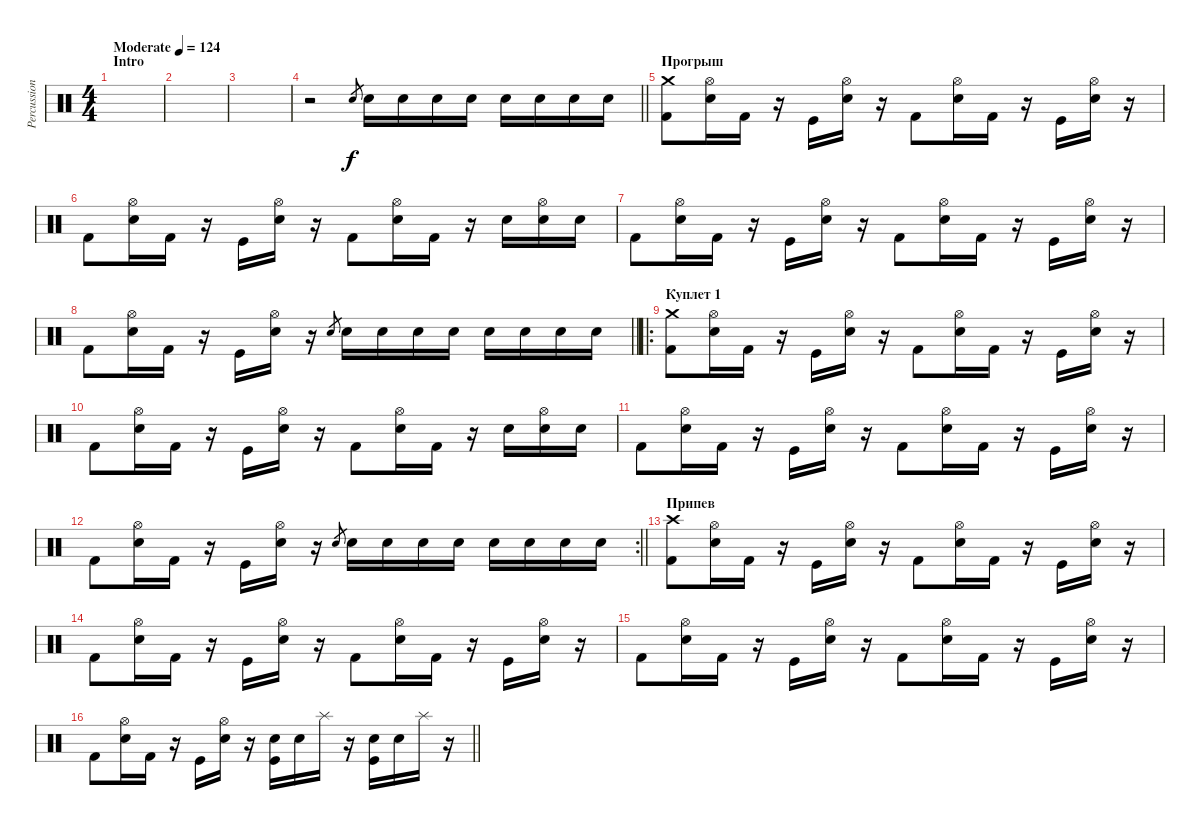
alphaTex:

\track ("Percussion" "Percussion") {instrument percussion}
\staff {score}
\articulation defaults
\ts (4 4)
\section ("" "Intro")
\tempo (124 "Moderate")
\clef neutral
\ks c
|
|
|
\barLineRight lightlight
r.2 "Electric Snare (hit)".8{gr} "Electric Snare (hit)".16 "Electric Snare (hit)".16 "Electric Snare (hit)".16 "Electric Snare (hit)".16 "Snare (hit) 2".16 "Snare (hit) 2".16 "Snare (hit) 2".16 "Snare (hit) 2".16 |
\section ("" "Прогрыш")
("Crash medium (hit)" "Kick (hit) 2").8 ("Hi-Hat (open)" "Snare (hit) 2").16 "Kick (hit) 2".16 r.16 "Kick (hit)".16 ("Hi-Hat (open)" "Snare (hit) 2").16 r.16 "Kick (hit) 2".8 ("Hi-Hat (open)" "Snare (hit) 2").16 "Kick (hit) 2".16 r.16 "Kick (hit)".16 ("Hi-Hat (open)" "Snare (hit) 2").16 r.16 |
"Kick (hit) 2".8 ("Hi-Hat (open)" "Snare (hit) 2").16 "Kick (hit) 2".16 r.16 "Kick (hit)".16 ("Hi-Hat (open)" "Snare (hit) 2").16 r.16 "Kick (hit) 2".8 ("Hi-Hat (open)" "Snare (hit) 2").16 "Kick (hit) 2".16 r.16 "Snare (hit) 2".16 ("Hi-Hat (open)" "Electric Snare (hit)").16 "Snare (hit) 2".16 |
"Kick (hit) 2".8 ("Hi-Hat (open)" "Snare (hit) 2").16 "Kick (hit) 2".16 r.16 "Kick (hit)".16 ("Hi-Hat (open)" "Snare (hit) 2").16 r.16 "Kick (hit) 2".8 ("Hi-Hat (open)" "Snare (hit) 2").16 "Kick (hit) 2".16 r.16 "Kick (hit)".16 ("Hi-Hat (open)" "Snare (hit) 2").16 r.16 |
\barLineRight lightlight "Kick (hit) 2".8
("Hi-Hat (open)" "Snare (hit) 2").16 "Kick (hit) 2".16 r.16 "Kick (hit)".16 ("Hi-Hat (open)" "Snare (hit) 2").16 r.16 "Electric Snare (hit)".8{gr} "Electric Snare (hit)".16 "Electric Snare (hit)".16 "Electric Snare (hit)".16 "Electric Snare (hit)".16 "Snare (hit) 2".16 "Snare (hit) 2".16 "Snare (hit) 2".16 "Snare (hit) 2".16 |
\ro
\section ("" "Куплет 1")
("Crash medium (hit)" "Kick (hit) 2").8 ("Hi-Hat (open)" "Snare (hit) 2").16 "Kick (hit) 2".16 r.16 "Kick (hit)".16 ("Hi-Hat (open)" "Snare (hit) 2").16 r.16 "Kick (hit) 2".8 ("Hi-Hat (open)" "Snare (hit) 2").16 "Kick (hit) 2".16 r.16 "Kick (hit)".16 ("Hi-Hat (open)" "Snare (hit) 2").16 r.16 |
"Kick (hit) 2".8 ("Hi-Hat (open)" "Snare (hit) 2").16 "Kick (hit) 2".16 r.16 "Kick (hit)".16 ("Hi-Hat (open)" "Snare (hit) 2").16 r.16 "Kick (hit) 2".8 ("Hi-Hat (open)" "Snare (hit) 2").16 "Kick (hit) 2".16 r.16 "Snare (hit) 2".16 ("Hi-Hat (open)" "Electric Snare (hit)").16 "Snare (hit) 2".16 |
"Kick (hit) 2".8 ("Hi-Hat (open)" "Snare (hit) 2").16 "Kick (hit) 2".16 r.16 "Kick (hit)".16 ("Hi-Hat (open)" "Snare (hit) 2").16 r.16 "Kick (hit) 2".8 ("Hi-Hat (open)" "Snare (hit) 2").16 "Kick (hit) 2".16 r.16 "Kick (hit)".16 ("Hi-Hat (open)" "Snare (hit) 2").16 r.16 |
\rc 2
\barLineRight lightlight "Kick (hit) 2".8
("Hi-Hat (open)" "Snare (hit) 2").16 "Kick (hit) 2".16 r.16 "Kick (hit)".16 ("Hi-Hat (open)" "Snare (hit) 2").16 r.16 "Electric Snare (hit)".8{gr} "Electric Snare (hit)".16 "Electric Snare (hit)".16 "Electric Snare (hit)".16 "Electric Snare (hit)".16 "Snare (hit) 2".16 "Snare (hit) 2".16 "Snare (hit) 2".16 "Snare (hit) 2".16 |
\section ("" "Припев")
("Crash high (hit)" "Kick (hit) 2").8 ("Hi-Hat (open)" "Snare (hit) 2").16 "Kick (hit) 2".16 r.16 "Kick (hit)".16 ("Hi-Hat (open)" "Snare (hit) 2").16 r.16 "Kick (hit) 2".8 ("Hi-Hat (open)" "Snare (hit) 2").16 "Kick (hit) 2".16 r.16 "Kick (hit)".16 ("Hi-Hat (open)" "Snare (hit) 2").16 r.16 |
"Kick (hit) 2".8 ("Hi-Hat (open)" "Snare (hit) 2").16 "Kick (hit) 2".16 r.16 "Kick (hit)".16 ("Hi-Hat (open)" "Snare (hit) 2").16 r.16 "Kick (hit) 2".8 ("Hi-Hat (open)" "Snare (hit) 2").16 "Kick (hit) 2".16 r.16 "Kick (hit)".16 ("Hi-Hat (open)" "Snare (hit) 2").16 r.16 |
"Kick (hit) 2".8 ("Hi-Hat (open)" "Snare (hit) 2").16 "Kick (hit) 2".16 r.16 "Kick (hit)".16 ("Hi-Hat (open)" "Snare (hit) 2").16 r.16 "Kick (hit) 2".8 ("Hi-Hat (open)" "Snare (hit) 2").16 "Kick (hit) 2".16 r.16 "Kick (hit)".16 ("Hi-Hat (open)" "Snare (hit) 2").16 r.16 |
\barLineRight lightlight "Kick (hit) 2".8
("Hi-Hat (open)" "Snare (hit) 2").16 "Kick (hit) 2".16 r.16 "Kick (hit)".16 ("Hi-Hat (open)" "Snare (hit) 2").16 r.16 ("Electric Snare (hit)" "Kick (hit)").16 "Electric Snare (hit)".16 "Splash (hit)".16 r.16 ("Snare (hit) 2" "Kick (hit)").16 "Snare (hit) 2".16 "Splash (hit)".16 r.16
